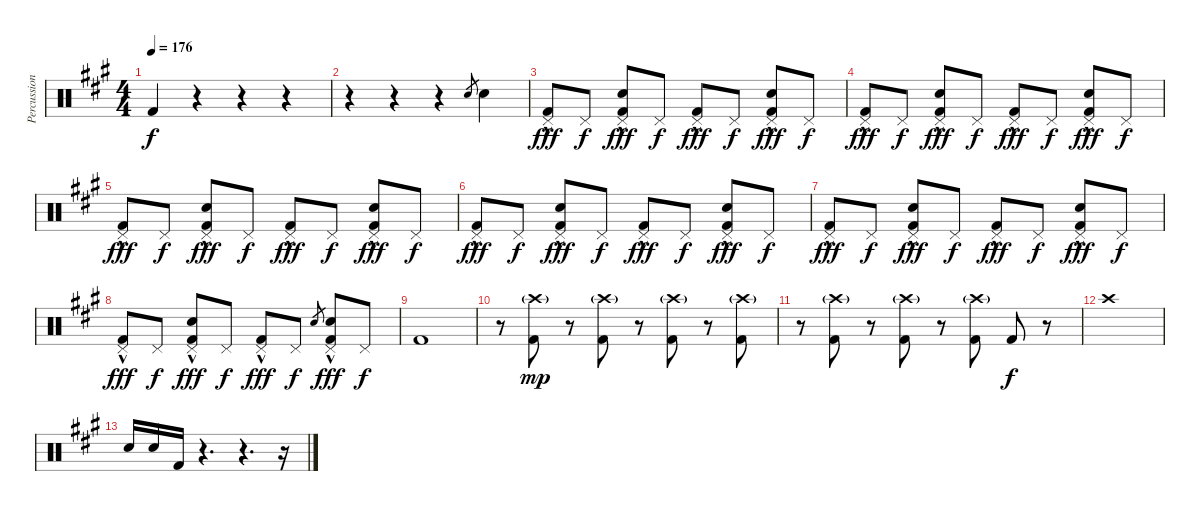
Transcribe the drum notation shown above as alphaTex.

\track ("Percussion" "Percussion") {instrument percussion}
\staff {score}
\articulation defaults
\ts (4 4)
\tempo 176
\clef neutral
\ks a "Kick (hit) 2".4{dy f}
r.4 r.4 r.4 |
r.4 r.4 r.4 "Snare (hit) 2".8{gr} "Snare (hit) 2".4 |
("Pedal Hi-Hat (hit)"{hac} "Kick (hit) 2").8{dy fff} "Pedal Hi-Hat (hit)".8{dy f} ("Pedal Hi-Hat (hit)"{hac} "Snare (hit) 2" "Kick (hit) 2").8{dy fff} "Pedal Hi-Hat (hit)".8{dy f} ("Pedal Hi-Hat (hit)"{hac} "Kick (hit) 2").8{dy fff} "Pedal Hi-Hat (hit)".8{dy f} ("Pedal Hi-Hat (hit)"{hac} "Snare (hit) 2" "Kick (hit) 2").8{dy fff} "Pedal Hi-Hat (hit)".8{dy f} |
("Pedal Hi-Hat (hit)"{hac} "Kick (hit) 2").8{dy fff} "Pedal Hi-Hat (hit)".8{dy f} ("Pedal Hi-Hat (hit)"{hac} "Snare (hit) 2" "Kick (hit) 2").8{dy fff} "Pedal Hi-Hat (hit)".8{dy f} ("Pedal Hi-Hat (hit)"{hac} "Kick (hit) 2").8{dy fff} "Pedal Hi-Hat (hit)".8{dy f} ("Pedal Hi-Hat (hit)"{hac} "Snare (hit) 2" "Kick (hit) 2").8{dy fff} "Pedal Hi-Hat (hit)".8{dy f} |
("Pedal Hi-Hat (hit)"{hac} "Kick (hit) 2").8{dy fff} "Pedal Hi-Hat (hit)".8{dy f} ("Pedal Hi-Hat (hit)"{hac} "Snare (hit) 2" "Kick (hit) 2").8{dy fff} "Pedal Hi-Hat (hit)".8{dy f} ("Pedal Hi-Hat (hit)"{hac} "Kick (hit) 2").8{dy fff} "Pedal Hi-Hat (hit)".8{dy f} ("Pedal Hi-Hat (hit)"{hac} "Snare (hit) 2" "Kick (hit) 2").8{dy fff} "Pedal Hi-Hat (hit)".8{dy f} |
("Pedal Hi-Hat (hit)"{hac} "Kick (hit) 2").8{dy fff} "Pedal Hi-Hat (hit)".8{dy f} ("Pedal Hi-Hat (hit)"{hac} "Snare (hit) 2" "Kick (hit) 2").8{dy fff} "Pedal Hi-Hat (hit)".8{dy f} ("Pedal Hi-Hat (hit)"{hac} "Kick (hit) 2").8{dy fff} "Pedal Hi-Hat (hit)".8{dy f} ("Pedal Hi-Hat (hit)"{hac} "Snare (hit) 2" "Kick (hit) 2").8{dy fff} "Pedal Hi-Hat (hit)".8{dy f} |
("Pedal Hi-Hat (hit)"{hac} "Kick (hit) 2").8{dy fff} "Pedal Hi-Hat (hit)".8{dy f} ("Pedal Hi-Hat (hit)"{hac} "Snare (hit) 2" "Kick (hit) 2").8{dy fff} "Pedal Hi-Hat (hit)".8{dy f} ("Pedal Hi-Hat (hit)"{hac} "Kick (hit) 2").8{dy fff} "Pedal Hi-Hat (hit)".8{dy f} ("Pedal Hi-Hat (hit)"{hac} "Snare (hit) 2" "Kick (hit) 2").8{dy fff} "Pedal Hi-Hat (hit)".8{dy f} |
("Pedal Hi-Hat (hit)"{hac} "Kick (hit) 2").8{dy fff} "Pedal Hi-Hat (hit)".8{dy f} ("Pedal Hi-Hat (hit)"{hac} "Snare (hit) 2" "Kick (hit) 2").8{dy fff} "Pedal Hi-Hat (hit)".8{dy f} ("Pedal Hi-Hat (hit)"{hac} "Kick (hit) 2").8{dy fff} "Pedal Hi-Hat (hit)".8{dy f} "Snare (hit) 2".8{gr} ("Pedal Hi-Hat (hit)"{hac} "Snare (hit) 2" "Kick (hit) 2").8{dy fff} "Pedal Hi-Hat (hit)".8{dy f} |
"Kick (hit) 2".1 |
r.8 ("Crash high (hit)"{g} "Kick (hit) 2").8{dy mp} r.8 ("Crash high (hit)"{g} "Kick (hit) 2").8 r.8 ("Crash high (hit)"{g} "Kick (hit) 2").8 r.8 ("Crash high (hit)"{g} "Kick (hit) 2").8 |
r.8 ("Crash high (hit)"{g} "Kick (hit) 2").8 r.8 ("Crash high (hit)"{g} "Kick (hit) 2").8 r.8 ("Crash high (hit)"{g} "Kick (hit) 2").8 "Kick (hit) 2".8{dy f} r.8 |
"Crash high (hit)".1 |
"Snare (hit) 2".16 "Snare (hit) 2".16 "Kick (hit) 2".16 r.4{d} r.4{d} r.16
